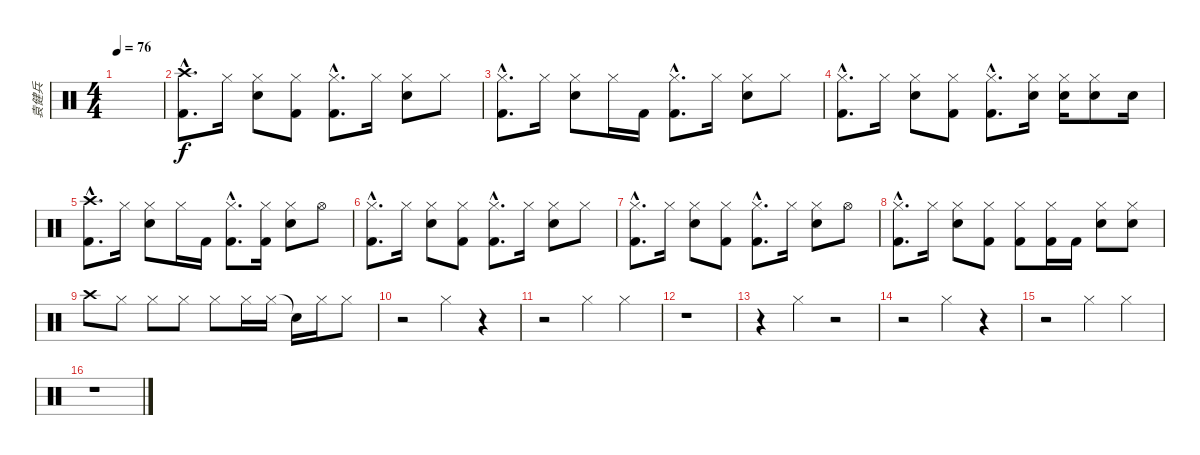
\track ("袁健兵" "袁健兵") {instrument percussion}
\staff {score}
\articulation defaults
\ts (4 4)
\tempo 76
\clef neutral
\ks c
|
("Crash high (hit)"{hac} "Kick (hit) 2"{hac}).8{d} "Hi-Hat (closed)".16 ("Hi-Hat (closed)" "Snare (hit) 2").8 ("Hi-Hat (closed)" "Kick (hit) 2").8 ("Hi-Hat (closed)"{hac} "Kick (hit) 2"{hac}).8{d} "Hi-Hat (closed)".16 ("Hi-Hat (closed)" "Snare (hit) 2").8 "Hi-Hat (closed)".8 |
("Hi-Hat (closed)"{hac} "Kick (hit) 2"{hac}).8{d} "Hi-Hat (closed)".16 ("Hi-Hat (closed)" "Snare (hit) 2").8 "Hi-Hat (closed)".16 "Kick (hit) 2".16 ("Hi-Hat (closed)"{hac} "Kick (hit) 2"{hac}).8{d} "Hi-Hat (closed)".16 ("Hi-Hat (closed)" "Snare (hit) 2").8 "Hi-Hat (closed)".8 |
("Hi-Hat (closed)"{hac} "Kick (hit) 2"{hac}).8{d} "Hi-Hat (closed)".16 ("Hi-Hat (closed)" "Snare (hit) 2").8 ("Hi-Hat (closed)" "Kick (hit) 2").8 ("Hi-Hat (closed)"{hac} "Kick (hit) 2"{hac}).8{d} ("Hi-Hat (closed)" "Snare (hit) 2").16 ("Hi-Hat (closed)" "Snare (hit) 2").16 ("Hi-Hat (closed)" "Snare (hit) 2").8 "Snare (hit) 2".16 |
("Crash high (hit)"{hac} "Kick (hit) 2"{hac}).8{d} "Hi-Hat (closed)".16 ("Hi-Hat (closed)" "Snare (hit) 2").8 "Hi-Hat (closed)".16 "Kick (hit) 2".16 ("Hi-Hat (closed)"{hac} "Kick (hit) 2"{hac}).8{d} ("Hi-Hat (closed)" "Kick (hit) 2").16 ("Hi-Hat (closed)" "Snare (hit) 2").8 "Hi-Hat (open)".8 |
("Hi-Hat (closed)"{hac} "Kick (hit) 2"{hac}).8{d} "Hi-Hat (closed)".16 ("Hi-Hat (closed)" "Snare (hit) 2").8 ("Hi-Hat (closed)" "Kick (hit) 2").8 ("Hi-Hat (closed)"{hac} "Kick (hit) 2"{hac}).8{d} "Hi-Hat (closed)".16 ("Hi-Hat (closed)" "Snare (hit) 2").8 "Hi-Hat (closed)".8 |
("Hi-Hat (closed)"{hac} "Kick (hit) 2"{hac}).8{d} "Hi-Hat (closed)".16 ("Hi-Hat (closed)" "Snare (hit) 2").8 ("Hi-Hat (closed)" "Kick (hit) 2").8 ("Hi-Hat (closed)"{hac} "Kick (hit) 2"{hac}).8{d} "Hi-Hat (closed)".16 ("Hi-Hat (closed)" "Snare (hit) 2").8 "Hi-Hat (open)".8 |
("Hi-Hat (closed)"{hac} "Kick (hit) 2"{hac}).8{d} "Hi-Hat (closed)".16 ("Hi-Hat (closed)" "Snare (hit) 2").8 ("Hi-Hat (closed)" "Kick (hit) 2").8 ("Hi-Hat (closed)" "Kick (hit) 2").8 ("Hi-Hat (closed)" "Kick (hit) 2").16 "Kick (hit) 2".16 ("Hi-Hat (closed)" "Snare (hit) 2").8 ("Hi-Hat (closed)" "Snare (hit) 2").8 |
"Crash high (hit)".8 "Hi-Hat (closed)".8 "Hi-Hat (closed)".8 "Hi-Hat (closed)".8 "Hi-Hat (closed)".8 "Hi-Hat (closed)".16 "Hi-Hat (closed)".16 "Snare (hit)"{t}.16 "Hi-Hat (closed)".16 "Hi-Hat (closed)".8 |
r.2 "Hi-Hat (closed)".4 r.4 |
r.2 "Hi-Hat (closed)".4 "Hi-Hat (closed)".4 |
r.1 |
r.4 "Hi-Hat (closed)".4 r.2 |
r.2 "Hi-Hat (closed)".4 r.4 |
r.2 "Hi-Hat (closed)".4 "Hi-Hat (closed)".4 |
r.1
